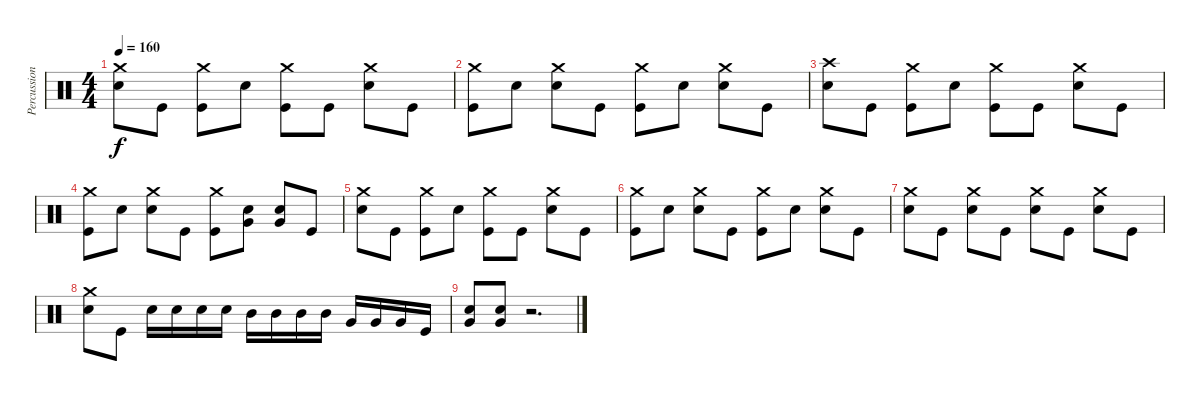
\track ("Percussion" "Percussion") {instrument percussion}
\staff {score}
\articulation defaults
\ts (4 4)
\tempo 160
\clef neutral
\ks c
("Crash medium (hit)" "Snare (hit) 2").8{dy f} "Kick (hit)".8 ("Crash medium (hit)" "Kick (hit)").8 "Snare (hit) 2".8 ("Crash medium (hit)" "Kick (hit)").8 "Kick (hit)".8 ("Crash medium (hit)" "Snare (hit) 2").8 "Kick (hit)".8 |
("Crash medium (hit)" "Kick (hit)").8 "Snare (hit) 2".8 ("Crash medium (hit)" "Snare (hit) 2").8 "Kick (hit)".8 ("Crash medium (hit)" "Kick (hit)").8 "Snare (hit) 2".8 ("Crash medium (hit)" "Snare (hit) 2").8 "Kick (hit)".8 |
("Crash high (hit)" "Snare (hit) 2").8 "Kick (hit)".8 ("Crash medium (hit)" "Kick (hit)").8 "Snare (hit) 2".8 ("Crash medium (hit)" "Kick (hit)").8 "Kick (hit)".8 ("Crash medium (hit)" "Snare (hit) 2").8 "Kick (hit)".8 |
("Crash medium (hit)" "Kick (hit)").8 "Snare (hit) 2".8 ("Crash medium (hit)" "Snare (hit) 2").8 "Kick (hit)".8 ("Crash medium (hit)" "Kick (hit)").8 ("Very Low Tom (hit)" "Snare (hit) 2").8 ("Very Low Tom (hit)" "Snare (hit) 2").8 "Kick (hit)".8 |
("Crash medium (hit)" "Snare (hit) 2").8 "Kick (hit)".8 ("Crash medium (hit)" "Kick (hit)").8 "Snare (hit) 2".8 ("Crash medium (hit)" "Kick (hit)").8 "Kick (hit)".8 ("Crash medium (hit)" "Snare (hit) 2").8 "Kick (hit)".8 |
("Crash medium (hit)" "Kick (hit)").8 "Snare (hit) 2".8 ("Crash medium (hit)" "Snare (hit) 2").8 "Kick (hit)".8 ("Crash medium (hit)" "Kick (hit)").8 "Snare (hit) 2".8 ("Crash medium (hit)" "Snare (hit) 2").8 "Kick (hit)".8 |
("Crash medium (hit)" "Snare (hit) 2").8 "Kick (hit)".8 ("Crash medium (hit)" "Snare (hit) 2").8 "Kick (hit)".8 ("Crash medium (hit)" "Snare (hit) 2").8 "Kick (hit)".8 ("Crash medium (hit)" "Snare (hit) 2").8 "Kick (hit)".8 |
("Crash medium (hit)" "Snare (hit) 2").8 "Kick (hit)".8 "Snare (hit) 2".16 "Snare (hit) 2".16 "Snare (hit) 2".16 "Snare (hit) 2".16 "Mid Tom (hit)".16 "Mid Tom (hit)".16 "Mid Tom (hit)".16 "Mid Tom (hit)".16 "Very Low Tom (hit)".16 "Very Low Tom (hit)".16 "Very Low Tom (hit)".16 "Kick (hit)".16 |
("Very Low Tom (hit)" "Snare (hit) 2").8 ("Very Low Tom (hit)" "Snare (hit) 2").8 r.2{d}
